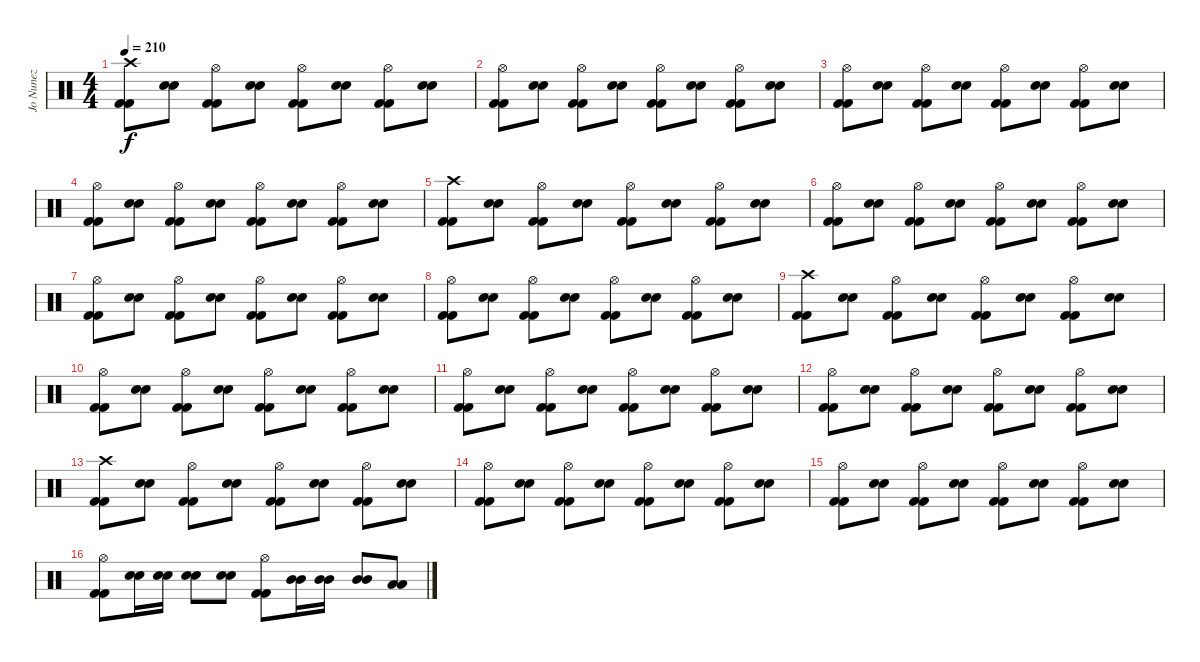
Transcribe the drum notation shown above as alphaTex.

\track ("Jo Nunez" "Jo Nunez") {instrument percussion}
\staff {score}
\articulation defaults
\ts (4 4)
\tempo 210
\clef neutral
\ks c
("Kick (hit) 2" "Kick (hit) 2" "Crash high (hit)").8{dy f} ("Electric Snare (hit)" "Electric Snare (hit)").8 ("Kick (hit) 2" "Kick (hit) 2" "Hi-Hat (open)").8 ("Electric Snare (hit)" "Electric Snare (hit)").8 ("Kick (hit) 2" "Kick (hit) 2" "Hi-Hat (open)").8 ("Electric Snare (hit)" "Electric Snare (hit)").8 ("Kick (hit) 2" "Kick (hit) 2" "Hi-Hat (open)").8 ("Electric Snare (hit)" "Electric Snare (hit)").8 |
("Kick (hit) 2" "Kick (hit) 2" "Hi-Hat (open)").8 ("Electric Snare (hit)" "Electric Snare (hit)").8 ("Kick (hit) 2" "Kick (hit) 2" "Hi-Hat (open)").8 ("Electric Snare (hit)" "Electric Snare (hit)").8 ("Kick (hit) 2" "Kick (hit) 2" "Hi-Hat (open)").8 ("Electric Snare (hit)" "Electric Snare (hit)").8 ("Kick (hit) 2" "Kick (hit) 2" "Hi-Hat (open)").8 ("Electric Snare (hit)" "Electric Snare (hit)").8 |
("Kick (hit) 2" "Kick (hit) 2" "Hi-Hat (open)").8 ("Electric Snare (hit)" "Electric Snare (hit)").8 ("Kick (hit) 2" "Kick (hit) 2" "Hi-Hat (open)").8 ("Electric Snare (hit)" "Electric Snare (hit)").8 ("Kick (hit) 2" "Kick (hit) 2" "Hi-Hat (open)").8 ("Electric Snare (hit)" "Electric Snare (hit)").8 ("Kick (hit) 2" "Kick (hit) 2" "Hi-Hat (open)").8 ("Electric Snare (hit)" "Electric Snare (hit)").8 |
("Kick (hit) 2" "Kick (hit) 2" "Hi-Hat (open)").8 ("Electric Snare (hit)" "Electric Snare (hit)").8 ("Kick (hit) 2" "Kick (hit) 2" "Hi-Hat (open)").8 ("Electric Snare (hit)" "Electric Snare (hit)").8 ("Kick (hit) 2" "Kick (hit) 2" "Hi-Hat (open)").8 ("Electric Snare (hit)" "Electric Snare (hit)").8 ("Kick (hit) 2" "Kick (hit) 2" "Hi-Hat (open)").8 ("Electric Snare (hit)" "Electric Snare (hit)").8 |
("Kick (hit) 2" "Kick (hit) 2" "Crash high (hit)").8 ("Electric Snare (hit)" "Electric Snare (hit)").8 ("Kick (hit) 2" "Kick (hit) 2" "Hi-Hat (open)").8 ("Electric Snare (hit)" "Electric Snare (hit)").8 ("Kick (hit) 2" "Kick (hit) 2" "Hi-Hat (open)").8 ("Electric Snare (hit)" "Electric Snare (hit)").8 ("Kick (hit) 2" "Kick (hit) 2" "Hi-Hat (open)").8 ("Electric Snare (hit)" "Electric Snare (hit)").8 |
("Kick (hit) 2" "Kick (hit) 2" "Hi-Hat (open)").8 ("Electric Snare (hit)" "Electric Snare (hit)").8 ("Kick (hit) 2" "Kick (hit) 2" "Hi-Hat (open)").8 ("Electric Snare (hit)" "Electric Snare (hit)").8 ("Kick (hit) 2" "Kick (hit) 2" "Hi-Hat (open)").8 ("Electric Snare (hit)" "Electric Snare (hit)").8 ("Kick (hit) 2" "Kick (hit) 2" "Hi-Hat (open)").8 ("Electric Snare (hit)" "Electric Snare (hit)").8 |
("Kick (hit) 2" "Kick (hit) 2" "Hi-Hat (open)").8 ("Electric Snare (hit)" "Electric Snare (hit)").8 ("Kick (hit) 2" "Kick (hit) 2" "Hi-Hat (open)").8 ("Electric Snare (hit)" "Electric Snare (hit)").8 ("Kick (hit) 2" "Kick (hit) 2" "Hi-Hat (open)").8 ("Electric Snare (hit)" "Electric Snare (hit)").8 ("Kick (hit) 2" "Kick (hit) 2" "Hi-Hat (open)").8 ("Electric Snare (hit)" "Electric Snare (hit)").8 |
("Kick (hit) 2" "Kick (hit) 2" "Hi-Hat (open)").8 ("Electric Snare (hit)" "Electric Snare (hit)").8 ("Kick (hit) 2" "Kick (hit) 2" "Hi-Hat (open)").8 ("Electric Snare (hit)" "Electric Snare (hit)").8 ("Kick (hit) 2" "Kick (hit) 2" "Hi-Hat (open)").8 ("Electric Snare (hit)" "Electric Snare (hit)").8 ("Kick (hit) 2" "Kick (hit) 2" "Hi-Hat (open)").8 ("Electric Snare (hit)" "Electric Snare (hit)").8 |
("Kick (hit) 2" "Kick (hit) 2" "Crash high (hit)").8 ("Electric Snare (hit)" "Electric Snare (hit)").8 ("Kick (hit) 2" "Kick (hit) 2" "Hi-Hat (open)").8 ("Electric Snare (hit)" "Electric Snare (hit)").8 ("Kick (hit) 2" "Kick (hit) 2" "Hi-Hat (open)").8 ("Electric Snare (hit)" "Electric Snare (hit)").8 ("Kick (hit) 2" "Kick (hit) 2" "Hi-Hat (open)").8 ("Electric Snare (hit)" "Electric Snare (hit)").8 |
("Kick (hit) 2" "Kick (hit) 2" "Hi-Hat (open)").8 ("Electric Snare (hit)" "Electric Snare (hit)").8 ("Kick (hit) 2" "Kick (hit) 2" "Hi-Hat (open)").8 ("Electric Snare (hit)" "Electric Snare (hit)").8 ("Kick (hit) 2" "Kick (hit) 2" "Hi-Hat (open)").8 ("Electric Snare (hit)" "Electric Snare (hit)").8 ("Kick (hit) 2" "Kick (hit) 2" "Hi-Hat (open)").8 ("Electric Snare (hit)" "Electric Snare (hit)").8 |
("Kick (hit) 2" "Kick (hit) 2" "Hi-Hat (open)").8 ("Electric Snare (hit)" "Electric Snare (hit)").8 ("Kick (hit) 2" "Kick (hit) 2" "Hi-Hat (open)").8 ("Electric Snare (hit)" "Electric Snare (hit)").8 ("Kick (hit) 2" "Kick (hit) 2" "Hi-Hat (open)").8 ("Electric Snare (hit)" "Electric Snare (hit)").8 ("Kick (hit) 2" "Kick (hit) 2" "Hi-Hat (open)").8 ("Electric Snare (hit)" "Electric Snare (hit)").8 |
("Kick (hit) 2" "Kick (hit) 2" "Hi-Hat (open)").8 ("Electric Snare (hit)" "Electric Snare (hit)").8 ("Kick (hit) 2" "Kick (hit) 2" "Hi-Hat (open)").8 ("Electric Snare (hit)" "Electric Snare (hit)").8 ("Kick (hit) 2" "Kick (hit) 2" "Hi-Hat (open)").8 ("Electric Snare (hit)" "Electric Snare (hit)").8 ("Kick (hit) 2" "Kick (hit) 2" "Hi-Hat (open)").8 ("Electric Snare (hit)" "Electric Snare (hit)").8 |
("Kick (hit) 2" "Kick (hit) 2" "Crash high (hit)").8 ("Electric Snare (hit)" "Electric Snare (hit)").8 ("Kick (hit) 2" "Kick (hit) 2" "Hi-Hat (open)").8 ("Electric Snare (hit)" "Electric Snare (hit)").8 ("Kick (hit) 2" "Kick (hit) 2" "Hi-Hat (open)").8 ("Electric Snare (hit)" "Electric Snare (hit)").8 ("Kick (hit) 2" "Kick (hit) 2" "Hi-Hat (open)").8 ("Electric Snare (hit)" "Electric Snare (hit)").8 |
("Kick (hit) 2" "Kick (hit) 2" "Hi-Hat (open)").8 ("Electric Snare (hit)" "Electric Snare (hit)").8 ("Kick (hit) 2" "Kick (hit) 2" "Hi-Hat (open)").8 ("Electric Snare (hit)" "Electric Snare (hit)").8 ("Kick (hit) 2" "Kick (hit) 2" "Hi-Hat (open)").8 ("Electric Snare (hit)" "Electric Snare (hit)").8 ("Kick (hit) 2" "Kick (hit) 2" "Hi-Hat (open)").8 ("Electric Snare (hit)" "Electric Snare (hit)").8 |
("Kick (hit) 2" "Kick (hit) 2" "Hi-Hat (open)").8 ("Electric Snare (hit)" "Electric Snare (hit)").8 ("Kick (hit) 2" "Kick (hit) 2" "Hi-Hat (open)").8 ("Electric Snare (hit)" "Electric Snare (hit)").8 ("Kick (hit) 2" "Kick (hit) 2" "Hi-Hat (open)").8 ("Electric Snare (hit)" "Electric Snare (hit)").8 ("Kick (hit) 2" "Kick (hit) 2" "Hi-Hat (open)").8 ("Electric Snare (hit)" "Electric Snare (hit)").8 |
("Kick (hit) 2" "Kick (hit) 2" "Hi-Hat (open)").8 ("Electric Snare (hit)" "Electric Snare (hit)").16 ("Electric Snare (hit)" "Electric Snare (hit)").16 ("Electric Snare (hit)" "Electric Snare (hit)").8 ("Electric Snare (hit)" "Electric Snare (hit)").8 ("Kick (hit) 2" "Kick (hit) 2" "Hi-Hat (open)").8 ("Mid Tom (hit)" "Mid Tom (hit)").16 ("Mid Tom (hit)" "Mid Tom (hit)").16 ("Mid Tom (hit)" "Mid Tom (hit)").8 ("Low Floor Tom (hit)" "Low Floor Tom (hit)").8
